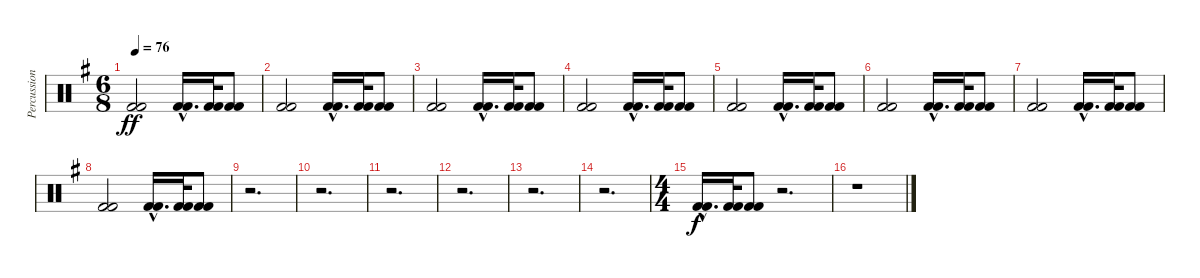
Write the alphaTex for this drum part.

\track ("Percussions 1" "Percussion") {instrument percussion}
\staff {score}
\articulation defaults
\ts (6 8)
\tempo 76
\clef neutral
\ks g
("Kick (hit) 2" "Kick (hit) 2").2{dy ff} ("Kick (hit) 2"{hac} "Kick (hit) 2"{hac}).16{d} ("Kick (hit) 2" "Kick (hit) 2").32 ("Kick (hit) 2" "Kick (hit) 2").8 |
("Kick (hit) 2" "Kick (hit) 2").2 ("Kick (hit) 2"{hac} "Kick (hit) 2"{hac}).16{d} ("Kick (hit) 2" "Kick (hit) 2").32 ("Kick (hit) 2" "Kick (hit) 2").8 |
("Kick (hit) 2" "Kick (hit) 2").2 ("Kick (hit) 2"{hac} "Kick (hit) 2"{hac}).16{d} ("Kick (hit) 2" "Kick (hit) 2").32 ("Kick (hit) 2" "Kick (hit) 2").8 |
("Kick (hit) 2" "Kick (hit) 2").2 ("Kick (hit) 2"{hac} "Kick (hit) 2"{hac}).16{d} ("Kick (hit) 2" "Kick (hit) 2").32 ("Kick (hit) 2" "Kick (hit) 2").8 |
("Kick (hit) 2" "Kick (hit) 2").2 ("Kick (hit) 2"{hac} "Kick (hit) 2"{hac}).16{d} ("Kick (hit) 2" "Kick (hit) 2").32 ("Kick (hit) 2" "Kick (hit) 2").8 |
("Kick (hit) 2" "Kick (hit) 2").2 ("Kick (hit) 2"{hac} "Kick (hit) 2"{hac}).16{d} ("Kick (hit) 2" "Kick (hit) 2").32 ("Kick (hit) 2" "Kick (hit) 2").8 |
("Kick (hit) 2" "Kick (hit) 2").2 ("Kick (hit) 2"{hac} "Kick (hit) 2"{hac}).16{d} ("Kick (hit) 2" "Kick (hit) 2").32 ("Kick (hit) 2" "Kick (hit) 2").8 |
("Kick (hit) 2" "Kick (hit) 2").2 ("Kick (hit) 2"{hac} "Kick (hit) 2"{hac}).16{d} ("Kick (hit) 2" "Kick (hit) 2").32 ("Kick (hit) 2" "Kick (hit) 2").8 |
r.2{d} |
r.2{d} |
r.2{d} |
r.2{d} |
r.2{d} |
r.2{d} |
\ts (4 4)
("Kick (hit) 2" "Kick (hit) 2"{hac}).16{d dy f} ("Kick (hit) 2" "Kick (hit) 2").32 ("Kick (hit) 2" "Kick (hit) 2").8 r.2{d} |
r.1
